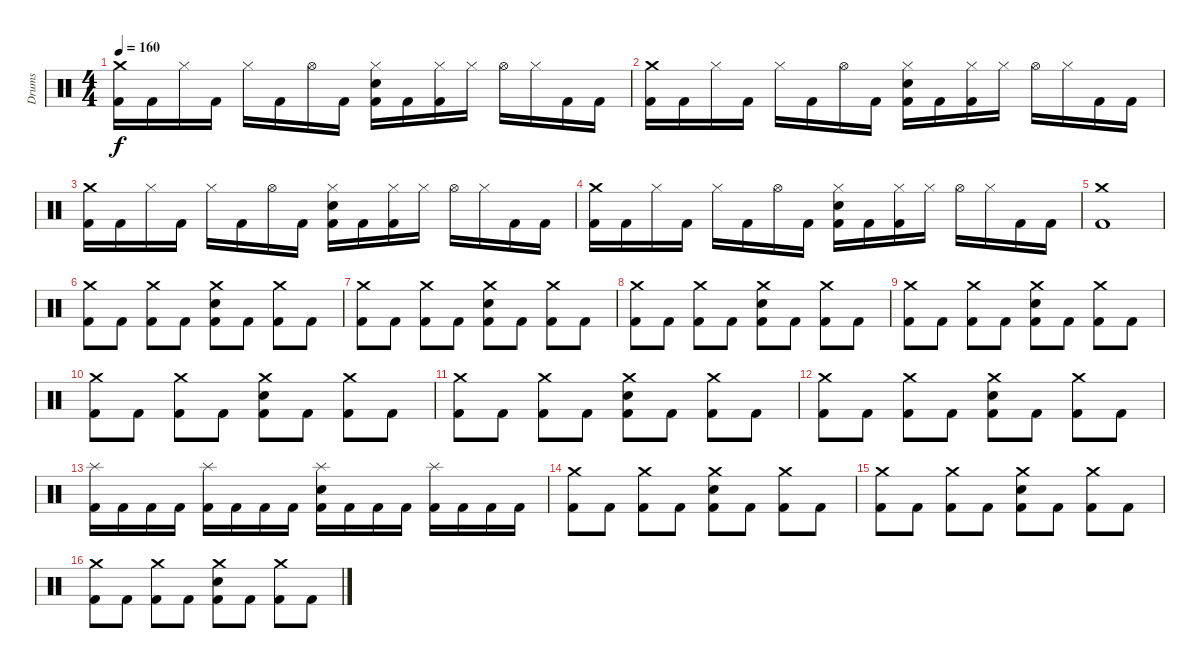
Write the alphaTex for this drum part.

\track ("Drums" "Drums") {instrument percussion}
\staff {score}
\articulation defaults
\ts (4 4)
\tempo 160
\clef neutral
\ks c
("Crash medium (hit)" "Kick (hit) 2").16{dy f} "Kick (hit) 2".16 "Hi-Hat (closed)".16 "Kick (hit) 2".16 "Hi-Hat (closed)".16 "Kick (hit) 2".16 "Hi-Hat (open)".16 "Kick (hit) 2".16 ("Hi-Hat (closed)" "Snare (hit) 2" "Kick (hit) 2").16 "Kick (hit) 2".16 ("Hi-Hat (closed)" "Kick (hit) 2").16 "Hi-Hat (closed)".16 "Hi-Hat (open)".16 "Hi-Hat (closed)".16 "Kick (hit) 2".16 "Kick (hit) 2".16 |
("Crash medium (hit)" "Kick (hit) 2").16 "Kick (hit) 2".16 "Hi-Hat (closed)".16 "Kick (hit) 2".16 "Hi-Hat (closed)".16 "Kick (hit) 2".16 "Hi-Hat (open)".16 "Kick (hit) 2".16 ("Hi-Hat (closed)" "Snare (hit) 2" "Kick (hit) 2").16 "Kick (hit) 2".16 ("Hi-Hat (closed)" "Kick (hit) 2").16 "Hi-Hat (closed)".16 "Hi-Hat (open)".16 "Hi-Hat (closed)".16 "Kick (hit) 2".16 "Kick (hit) 2".16 |
("Crash medium (hit)" "Kick (hit) 2").16 "Kick (hit) 2".16 "Hi-Hat (closed)".16 "Kick (hit) 2".16 "Hi-Hat (closed)".16 "Kick (hit) 2".16 "Hi-Hat (open)".16 "Kick (hit) 2".16 ("Hi-Hat (closed)" "Snare (hit) 2" "Kick (hit) 2").16 "Kick (hit) 2".16 ("Hi-Hat (closed)" "Kick (hit) 2").16 "Hi-Hat (closed)".16 "Hi-Hat (open)".16 "Hi-Hat (closed)".16 "Kick (hit) 2".16 "Kick (hit) 2".16 |
("Crash medium (hit)" "Kick (hit) 2").16 "Kick (hit) 2".16 "Hi-Hat (closed)".16 "Kick (hit) 2".16 "Hi-Hat (closed)".16 "Kick (hit) 2".16 "Hi-Hat (open)".16 "Kick (hit) 2".16 ("Hi-Hat (closed)" "Snare (hit) 2" "Kick (hit) 2").16 "Kick (hit) 2".16 ("Hi-Hat (closed)" "Kick (hit) 2").16 "Hi-Hat (closed)".16 "Hi-Hat (open)".16 "Hi-Hat (closed)".16 "Kick (hit) 2".16 "Kick (hit) 2".16 |
("Crash medium (hit)" "Kick (hit) 2").1 |
("Crash medium (hit)" "Kick (hit) 2").8 "Kick (hit) 2".8 ("Crash medium (hit)" "Kick (hit) 2").8 "Kick (hit) 2".8 ("Crash medium (hit)" "Snare (hit) 2" "Kick (hit) 2").8 "Kick (hit) 2".8 ("Crash medium (hit)" "Kick (hit) 2").8 "Kick (hit) 2".8 |
("Crash medium (hit)" "Kick (hit) 2").8 "Kick (hit) 2".8 ("Crash medium (hit)" "Kick (hit) 2").8 "Kick (hit) 2".8 ("Crash medium (hit)" "Snare (hit) 2" "Kick (hit) 2").8 "Kick (hit) 2".8 ("Crash medium (hit)" "Kick (hit) 2").8 "Kick (hit) 2".8 |
("Crash medium (hit)" "Kick (hit) 2").8 "Kick (hit) 2".8 ("Crash medium (hit)" "Kick (hit) 2").8 "Kick (hit) 2".8 ("Crash medium (hit)" "Snare (hit) 2" "Kick (hit) 2").8 "Kick (hit) 2".8 ("Crash medium (hit)" "Kick (hit) 2").8 "Kick (hit) 2".8 |
("Crash medium (hit)" "Kick (hit) 2").8 "Kick (hit) 2".8 ("Crash medium (hit)" "Kick (hit) 2").8 "Kick (hit) 2".8 ("Crash medium (hit)" "Snare (hit) 2" "Kick (hit) 2").8 "Kick (hit) 2".8 ("Crash medium (hit)" "Kick (hit) 2").8 "Kick (hit) 2".8 |
("Crash medium (hit)" "Kick (hit) 2").8 "Kick (hit) 2".8 ("Crash medium (hit)" "Kick (hit) 2").8 "Kick (hit) 2".8 ("Crash medium (hit)" "Snare (hit) 2" "Kick (hit) 2").8 "Kick (hit) 2".8 ("Crash medium (hit)" "Kick (hit) 2").8 "Kick (hit) 2".8 |
("Crash medium (hit)" "Kick (hit) 2").8 "Kick (hit) 2".8 ("Crash medium (hit)" "Kick (hit) 2").8 "Kick (hit) 2".8 ("Crash medium (hit)" "Snare (hit) 2" "Kick (hit) 2").8 "Kick (hit) 2".8 ("Crash medium (hit)" "Kick (hit) 2").8 "Kick (hit) 2".8 |
("Crash medium (hit)" "Kick (hit) 2").8 "Kick (hit) 2".8 ("Crash medium (hit)" "Kick (hit) 2").8 "Kick (hit) 2".8 ("Crash medium (hit)" "Snare (hit) 2" "Kick (hit) 2").8 "Kick (hit) 2".8 ("Crash medium (hit)" "Kick (hit) 2").8 "Kick (hit) 2".8 |
("Splash (hit)" "Kick (hit) 2").16 "Kick (hit) 2".16 "Kick (hit) 2".16 "Kick (hit) 2".16 ("Splash (hit)" "Kick (hit) 2").16 "Kick (hit) 2".16 "Kick (hit) 2".16 "Kick (hit) 2".16 ("Splash (hit)" "Snare (hit) 2" "Kick (hit) 2").16 "Kick (hit) 2".16 "Kick (hit) 2".16 "Kick (hit) 2".16 ("Splash (hit)" "Kick (hit) 2").16 "Kick (hit) 2".16 "Kick (hit) 2".16 "Kick (hit) 2".16 |
("Crash medium (hit)" "Kick (hit) 2").8 "Kick (hit) 2".8 ("Crash medium (hit)" "Kick (hit) 2").8 "Kick (hit) 2".8 ("Crash medium (hit)" "Snare (hit) 2" "Kick (hit) 2").8 "Kick (hit) 2".8 ("Crash medium (hit)" "Kick (hit) 2").8 "Kick (hit) 2".8 |
("Crash medium (hit)" "Kick (hit) 2").8 "Kick (hit) 2".8 ("Crash medium (hit)" "Kick (hit) 2").8 "Kick (hit) 2".8 ("Crash medium (hit)" "Snare (hit) 2" "Kick (hit) 2").8 "Kick (hit) 2".8 ("Crash medium (hit)" "Kick (hit) 2").8 "Kick (hit) 2".8 |
("Crash medium (hit)" "Kick (hit) 2").8 "Kick (hit) 2".8 ("Crash medium (hit)" "Kick (hit) 2").8 "Kick (hit) 2".8 ("Crash medium (hit)" "Snare (hit) 2" "Kick (hit) 2").8 "Kick (hit) 2".8 ("Crash medium (hit)" "Kick (hit) 2").8 "Kick (hit) 2".8
